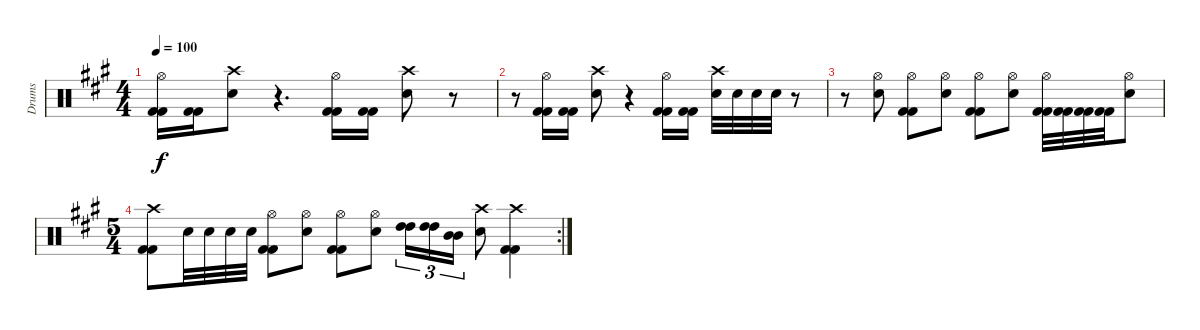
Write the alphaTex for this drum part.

\track ("Drums" "Drums") {instrument percussion}
\staff {score}
\articulation defaults
\ts (4 4)
\tempo 100
\clef neutral
\ks a
("Hi-Hat (open)" "Kick (hit) 2" "Kick (hit) 2").16{dy f} ("Kick (hit) 2" "Kick (hit) 2").16 ("Crash high (hit)" "Electric Snare (hit)").8 r.4{d} ("Hi-Hat (open)" "Kick (hit) 2" "Kick (hit) 2").16 ("Kick (hit) 2" "Kick (hit) 2").16 ("Crash high (hit)" "Electric Snare (hit)").8 r.8 |
r.8 ("Hi-Hat (open)" "Kick (hit) 2" "Kick (hit) 2").16 ("Kick (hit) 2" "Kick (hit) 2").16 ("Crash high (hit)" "Electric Snare (hit)").8 r.4 ("Hi-Hat (open)" "Kick (hit) 2" "Kick (hit) 2").16 ("Kick (hit) 2" "Kick (hit) 2").16 ("Crash high (hit)" "Electric Snare (hit)").32 "Electric Snare (hit)".32 "Electric Snare (hit)".32 "Electric Snare (hit)".32 r.8 |
r.8 ("Hi-Hat (open)" "Electric Snare (hit)").8 ("Hi-Hat (open)" "Kick (hit) 2" "Kick (hit) 2").8 ("Hi-Hat (open)" "Electric Snare (hit)").8 ("Hi-Hat (open)" "Kick (hit) 2" "Kick (hit) 2").8 ("Hi-Hat (open)" "Electric Snare (hit)").8 ("Hi-Hat (open)" "Kick (hit) 2" "Kick (hit) 2").32 ("Kick (hit) 2" "Kick (hit) 2").32 ("Kick (hit) 2" "Kick (hit) 2").32 ("Kick (hit) 2" "Kick (hit) 2").32 ("Hi-Hat (open)" "Electric Snare (hit)").8 |
\rc 2
\ts (5 4)
("Crash high (hit)" "Kick (hit) 2" "Kick (hit) 2").8 "Electric Snare (hit)".32 "Electric Snare (hit)".32 "Electric Snare (hit)".32 "Electric Snare (hit)".32 ("Hi-Hat (open)" "Kick (hit) 2" "Kick (hit) 2").8 ("Hi-Hat (open)" "Electric Snare (hit)").8 ("Hi-Hat (open)" "Kick (hit) 2" "Kick (hit) 2").8 ("Hi-Hat (open)" "Electric Snare (hit)").8 ("High Tom (hit)" "High Tom (hit)").16{tu (3 2)} ("High Tom (hit)" "High Tom (hit)").16{tu (3 2)} ("Mid Tom (hit)" "Mid Tom (hit)").16{tu (3 2)} ("Crash high (hit)" "Electric Snare (hit)").8 ("Crash high (hit)" "Kick (hit) 2" "Kick (hit) 2").4
